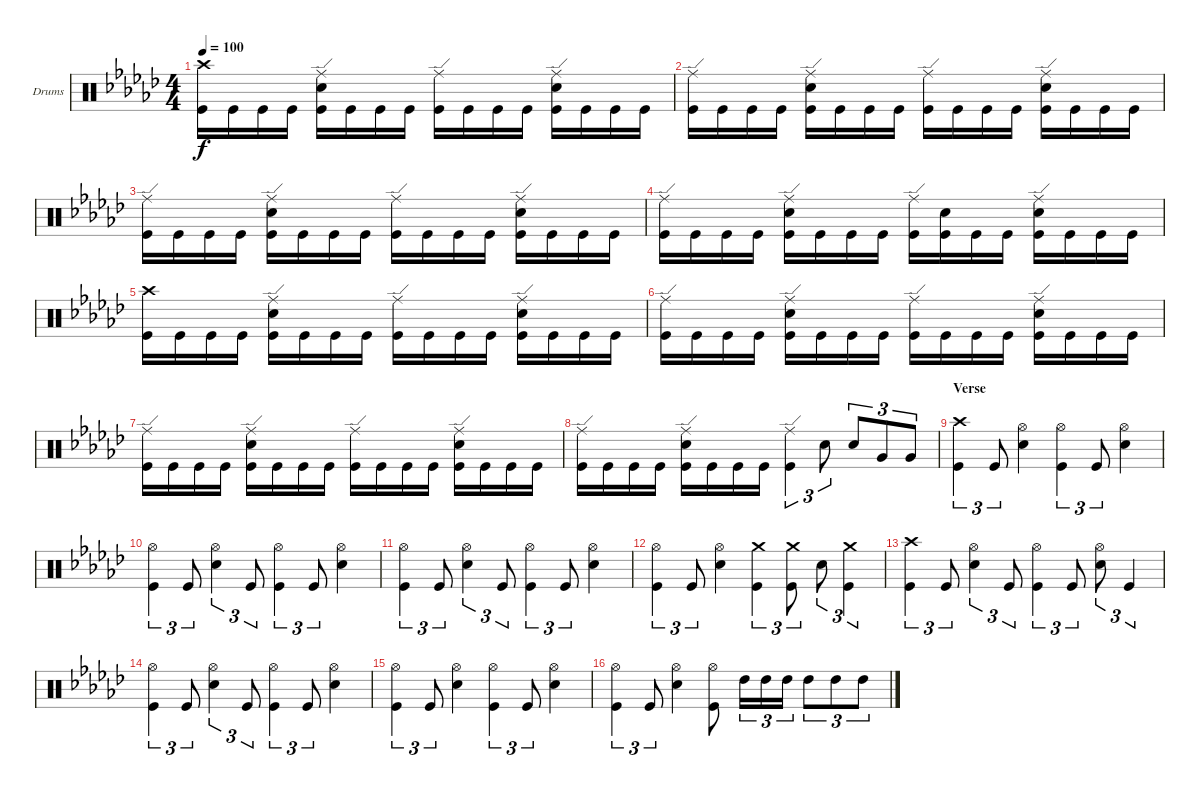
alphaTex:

\defaultSystemsLayout 4
\bracketExtendMode groupsimilarinstruments
\firstSystemTrackNameOrientation horizontal
\otherSystemsTrackNameOrientation horizontal
\track ("Drumkit" "Drums") {instrument percussion}
\staff {score}
\articulation defaults
\ts (4 4)
\tempo 100
\clef neutral
\scale
0.333333
\ks ebminor
("Kick (hit)" "Crash high (hit)").16{dy f} "Kick (hit)".16 "Kick (hit)".16 "Kick (hit)".16 ("Kick (hit)" "Snare (hit) 2" "Ride (edge)").16 "Kick (hit)".16 "Kick (hit)".16 "Kick (hit)".16 ("Kick (hit)" "Ride (edge)").16 "Kick (hit)".16 "Kick (hit)".16 "Kick (hit)".16 ("Kick (hit)" "Snare (hit) 2" "Ride (edge)").16 "Kick (hit)".16 "Kick (hit)".16 "Kick (hit)".16 |
\scale
0.333333 ("Kick (hit)" "Ride (edge)").16 "Kick (hit)".16 "Kick (hit)".16 "Kick (hit)".16 ("Kick (hit)" "Snare (hit) 2" "Ride (edge)").16 "Kick (hit)".16 "Kick (hit)".16 "Kick (hit)".16 ("Kick (hit)" "Ride (edge)").16 "Kick (hit)".16 "Kick (hit)".16 "Kick (hit)".16 ("Kick (hit)" "Snare (hit) 2" "Ride (edge)").16 "Kick (hit)".16 "Kick (hit)".16 "Kick (hit)".16 |
\scale
0.333333 ("Kick (hit)" "Ride (edge)").16 "Kick (hit)".16 "Kick (hit)".16 "Kick (hit)".16 ("Kick (hit)" "Snare (hit) 2" "Ride (edge)").16 "Kick (hit)".16 "Kick (hit)".16 "Kick (hit)".16 ("Kick (hit)" "Ride (edge)").16 "Kick (hit)".16 "Kick (hit)".16 "Kick (hit)".16 ("Kick (hit)" "Snare (hit) 2" "Ride (edge)").16 "Kick (hit)".16 "Kick (hit)".16 "Kick (hit)".16 |
\scale
0.333333 ("Kick (hit)" "Ride (edge)").16 "Kick (hit)".16 "Kick (hit)".16 "Kick (hit)".16 ("Kick (hit)" "Snare (hit) 2" "Ride (edge)").16 "Kick (hit)".16 "Kick (hit)".16 "Kick (hit)".16 ("Kick (hit)" "Ride (edge)").16 ("Kick (hit)" "Snare (hit) 2").16 "Kick (hit)".16 "Kick (hit)".16 ("Kick (hit)" "Snare (hit) 2" "Ride (edge)").16 "Kick (hit)".16 "Kick (hit)".16 "Kick (hit)".16 |
\scale
0.333333 ("Kick (hit)" "Crash high (hit)").16 "Kick (hit)".16 "Kick (hit)".16 "Kick (hit)".16 ("Kick (hit)" "Snare (hit) 2" "Ride (edge)").16 "Kick (hit)".16 "Kick (hit)".16 "Kick (hit)".16 ("Kick (hit)" "Ride (edge)").16 "Kick (hit)".16 "Kick (hit)".16 "Kick (hit)".16 ("Kick (hit)" "Snare (hit) 2" "Ride (edge)").16 "Kick (hit)".16 "Kick (hit)".16 "Kick (hit)".16 |
\scale
0.333333 ("Kick (hit)" "Ride (edge)").16 "Kick (hit)".16 "Kick (hit)".16 "Kick (hit)".16 ("Kick (hit)" "Snare (hit) 2" "Ride (edge)").16 "Kick (hit)".16 "Kick (hit)".16 "Kick (hit)".16 ("Kick (hit)" "Ride (edge)").16 "Kick (hit)".16 "Kick (hit)".16 "Kick (hit)".16 ("Kick (hit)" "Snare (hit) 2" "Ride (edge)").16 "Kick (hit)".16 "Kick (hit)".16 "Kick (hit)".16 |
\scale
0.333333 ("Kick (hit)" "Ride (edge)").16 "Kick (hit)".16 "Kick (hit)".16 "Kick (hit)".16 ("Kick (hit)" "Snare (hit) 2" "Ride (edge)").16 "Kick (hit)".16 "Kick (hit)".16 "Kick (hit)".16 ("Kick (hit)" "Ride (edge)").16 "Kick (hit)".16 "Kick (hit)".16 "Kick (hit)".16 ("Kick (hit)" "Snare (hit) 2" "Ride (edge)").16 "Kick (hit)".16 "Kick (hit)".16 "Kick (hit)".16 |
\scale
0.333333 ("Kick (hit)" "Ride (edge)").16 "Kick (hit)".16 "Kick (hit)".16 "Kick (hit)".16 ("Kick (hit)" "Snare (hit) 2" "Ride (edge)").16 "Kick (hit)".16 "Kick (hit)".16 "Kick (hit)".16 ("Kick (hit)" "Ride (edge)").4{tu (3 2)} "Snare (hit) 2".8{tu (3 2)} "Snare (hit) 2".8{tu (3 2)} "Very Low Tom (hit)".8{tu (3 2)} "Very Low Tom (hit)".8{tu (3 2)} |
\section ("" "Verse")
\scale
0.333333 ("Crash high (hit)" "Kick (hit)").4{tu (3 2)} "Kick (hit)".8{tu (3 2)} ("Snare (hit) 2" "Hi-Hat (open)").4 ("Kick (hit)" "Hi-Hat (open)").4{tu (3 2)} "Kick (hit)".8{tu (3 2)} ("Snare (hit) 2" "Hi-Hat (open)").4 |
\scale
0.333333 ("Kick (hit)" "Hi-Hat (open)").4{tu (3 2)} "Kick (hit)".8{tu (3 2)} ("Snare (hit) 2" "Hi-Hat (open)").4{tu (3 2)} "Kick (hit)".8{tu (3 2)} ("Kick (hit)" "Hi-Hat (open)").4{tu (3 2)} "Kick (hit)".8{tu (3 2)} ("Snare (hit) 2" "Hi-Hat (open)").4 |
\scale
0.333333 ("Kick (hit)" "Hi-Hat (open)").4{tu (3 2)} "Kick (hit)".8{tu (3 2)} ("Snare (hit) 2" "Hi-Hat (open)").4{tu (3 2)} "Kick (hit)".8{tu (3 2)} ("Kick (hit)" "Hi-Hat (open)").4{tu (3 2)} "Kick (hit)".8{tu (3 2)} ("Snare (hit) 2" "Hi-Hat (open)").4 |
\scale
0.333333 ("Kick (hit)" "Hi-Hat (open)").4{tu (3 2)} "Kick (hit)".8{tu (3 2)} ("Snare (hit) 2" "Hi-Hat (open)").4 ("Crash medium (hit)" "Kick (hit)").4{tu (3 2)} ("Crash medium (hit)" "Kick (hit)").8{tu (3 2)} "Snare (hit) 2".8{tu (3 2)} ("Crash medium (hit)" "Kick (hit)").4{tu (3 2)} |
\scale
0.333333 ("Kick (hit)" "Crash high (hit)").4{tu (3 2)} "Kick (hit)".8{tu (3 2)} ("Snare (hit) 2" "Hi-Hat (open)").4{tu (3 2)} "Kick (hit)".8{tu (3 2)} ("Kick (hit)" "Hi-Hat (open)").4{tu (3 2)} "Kick (hit)".8{tu (3 2)} ("Snare (hit) 2" "Hi-Hat (open)").8{tu (3 2)} "Kick (hit)".4{tu (3 2)} |
\scale
0.333333 ("Kick (hit)" "Hi-Hat (open)").4{tu (3 2)} "Kick (hit)".8{tu (3 2)} ("Snare (hit) 2" "Hi-Hat (open)").4{tu (3 2)} "Kick (hit)".8{tu (3 2)} ("Kick (hit)" "Hi-Hat (open)").4{tu (3 2)} "Kick (hit)".8{tu (3 2)} ("Snare (hit) 2" "Hi-Hat (open)").4 |
\scale
0.333333 ("Kick (hit)" "Hi-Hat (open)").4{tu (3 2)} "Kick (hit)".8{tu (3 2)} ("Snare (hit) 2" "Hi-Hat (open)").4 ("Kick (hit)" "Hi-Hat (open)").4{tu (3 2)} "Kick (hit)".8{tu (3 2)} ("Snare (hit) 2" "Hi-Hat (open)").4 |
\scale
0.333333 ("Kick (hit)" "Hi-Hat (open)").4{tu (3 2)} "Kick (hit)".8{tu (3 2)} ("Snare (hit) 2" "Hi-Hat (open)").4 ("Kick (hit)" "Hi-Hat (open)").8 "High Tom (hit)".16{tu (3 2)} "High Tom (hit)".16{tu (3 2)} "High Tom (hit)".16{tu (3 2)} "High Tom (hit)".8{tu (3 2)} "High Tom (hit)".8{tu (3 2)} "High Tom (hit)".8{tu (3 2)}
